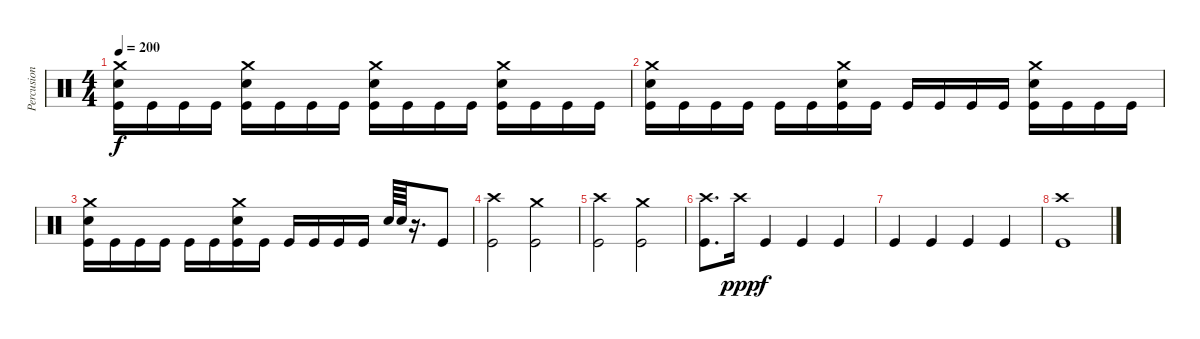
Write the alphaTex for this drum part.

\track ("Percusion" "Percusion") {instrument percussion}
\staff {score}
\articulation defaults
\ts (4 4)
\tempo 200
\clef neutral
\ks c
("Kick (hit)" "Snare (hit) 2" "Crash medium (hit)").16{dy f} "Kick (hit)".16 "Kick (hit)".16 "Kick (hit)".16 ("Kick (hit)" "Snare (hit) 2" "Crash medium (hit)").16 "Kick (hit)".16 "Kick (hit)".16 "Kick (hit)".16 ("Kick (hit)" "Snare (hit) 2" "Crash medium (hit)").16 "Kick (hit)".16 "Kick (hit)".16 "Kick (hit)".16 ("Kick (hit)" "Snare (hit) 2" "Crash medium (hit)").16 "Kick (hit)".16 "Kick (hit)".16 "Kick (hit)".16 |
("Kick (hit)" "Snare (hit) 2" "Crash medium (hit)").16 "Kick (hit)".16 "Kick (hit)".16 "Kick (hit)".16 "Kick (hit)".16 "Kick (hit)".16 ("Kick (hit)" "Snare (hit) 2" "Crash medium (hit)").16 "Kick (hit)".16 "Kick (hit)".16 "Kick (hit)".16 "Kick (hit)".16 "Kick (hit)".16 ("Kick (hit)" "Snare (hit) 2" "Crash medium (hit)").16 "Kick (hit)".16 "Kick (hit)".16 "Kick (hit)".16 |
("Kick (hit)" "Snare (hit) 2" "Crash medium (hit)").16 "Kick (hit)".16 "Kick (hit)".16 "Kick (hit)".16 "Kick (hit)".16 "Kick (hit)".16 ("Kick (hit)" "Snare (hit) 2" "Crash medium (hit)").16 "Kick (hit)".16 "Kick (hit)".16 "Kick (hit)".16 "Kick (hit)".16 "Kick (hit)".16 "Snare (hit) 2".64 "Snare (hit) 2".64 r.16{d} "Kick (hit)".8 |
("Crash high (hit)" "Kick (hit)").2 ("Crash medium (hit)" "Kick (hit)").2 |
("Crash high (hit)" "Kick (hit)").2 ("Crash medium (hit)" "Kick (hit)").2 |
("Crash high (hit)" "Kick (hit)").8{d} "Crash high (hit)".16{dy ppp} "Kick (hit)".4{dy f} "Kick (hit)".4 "Kick (hit)".4 |
"Kick (hit)".4 "Kick (hit)".4 "Kick (hit)".4 "Kick (hit)".4 |
("Crash high (hit)" "Kick (hit)").1
